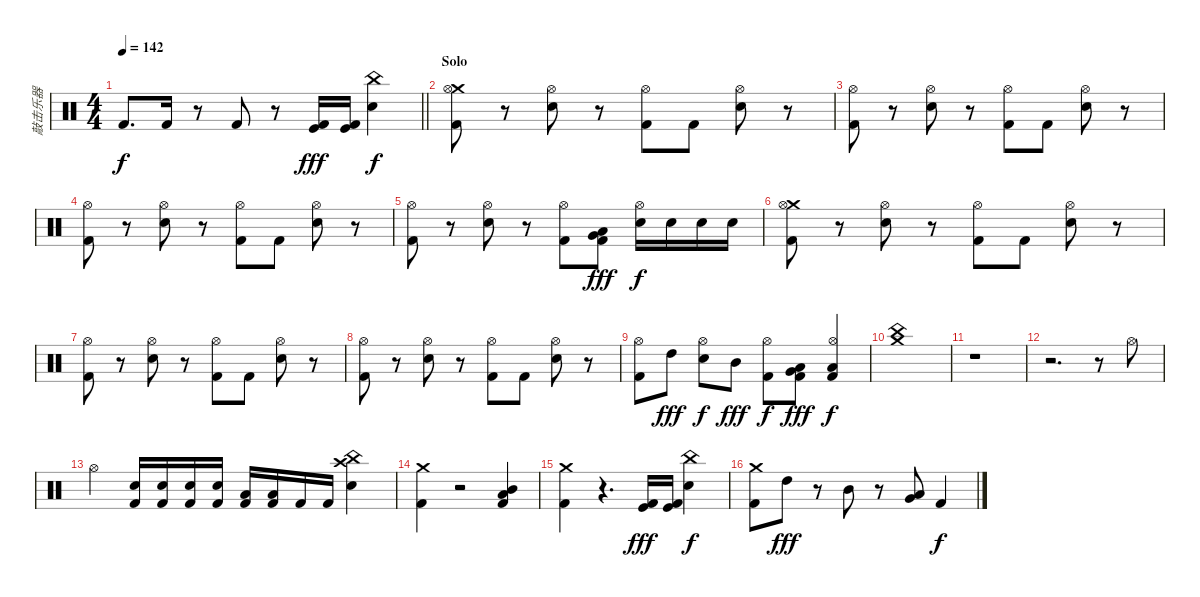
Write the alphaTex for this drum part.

\track ("敲击乐器" "敲击乐器") {instrument percussion}
\staff {score}
\articulation defaults
\ts (4 4)
\tempo 142
\clef neutral
\barLineRight lightlight
\ks c "Kick (hit) 2".8{d dy f} "Kick (hit) 2".16
r.8 "Kick (hit) 2".8 r.8 ("Kick (hit)" "Kick (hit) 2").16{dy fff} ("Kick (hit)" "Kick (hit) 2").16 ("Snare (hit) 2" "China (hit)").4{dy f} |
\section ("" "Solo")
("Crash medium (hit)" "Hi-Hat (open)" "Kick (hit) 2").8 r.8 ("Snare (hit) 2" "Hi-Hat (open)").8 r.8 ("Hi-Hat (open)" "Kick (hit) 2").8 "Kick (hit) 2".8 ("Snare (hit) 2" "Hi-Hat (open)").8 r.8 |
("Hi-Hat (open)" "Kick (hit) 2").8 r.8 ("Snare (hit) 2" "Hi-Hat (open)").8 r.8 ("Hi-Hat (open)" "Kick (hit) 2").8 "Kick (hit) 2".8 ("Snare (hit) 2" "Hi-Hat (open)").8 r.8 |
("Hi-Hat (open)" "Kick (hit) 2").8 r.8 ("Snare (hit) 2" "Hi-Hat (open)").8 r.8 ("Hi-Hat (open)" "Kick (hit) 2").8 "Kick (hit) 2".8 ("Snare (hit) 2" "Hi-Hat (open)").8 r.8 |
("Hi-Hat (open)" "Kick (hit) 2").8 r.8 ("Snare (hit) 2" "Hi-Hat (open)").8 r.8 ("Hi-Hat (open)" "Kick (hit) 2").8 ("Very Low Tom (hit)" "Low Floor Tom (hit)" "Kick (hit) 2").8{dy fff} ("Snare (hit) 2" "Hi-Hat (open)").16{dy f} "Snare (hit) 2".16 "Snare (hit) 2".16 "Snare (hit) 2".16 |
("Crash medium (hit)" "Hi-Hat (open)" "Kick (hit) 2").8 r.8 ("Snare (hit) 2" "Hi-Hat (open)").8 r.8 ("Hi-Hat (open)" "Kick (hit) 2").8 "Kick (hit) 2".8 ("Snare (hit) 2" "Hi-Hat (open)").8 r.8 |
("Hi-Hat (open)" "Kick (hit) 2").8 r.8 ("Snare (hit) 2" "Hi-Hat (open)").8 r.8 ("Hi-Hat (open)" "Kick (hit) 2").8 "Kick (hit) 2".8 ("Snare (hit) 2" "Hi-Hat (open)").8 r.8 |
("Hi-Hat (open)" "Kick (hit) 2").8 r.8 ("Snare (hit) 2" "Hi-Hat (open)").8 r.8 ("Hi-Hat (open)" "Kick (hit) 2").8 "Kick (hit) 2".8 ("Snare (hit) 2" "Hi-Hat (open)").8 r.8 |
("Hi-Hat (open)" "Kick (hit) 2").8 "High Tom (hit)".8{dy fff} ("Snare (hit) 2" "Hi-Hat (open)").8{dy f} "Mid Tom (hit)".8{dy fff} ("Hi-Hat (open)" "Kick (hit) 2").8{dy f} ("Very Low Tom (hit)" "Low Floor Tom (hit)" "Kick (hit) 2").8{dy fff} ("Low Floor Tom (hit)" "Hi-Hat (open)" "Kick (hit) 2").4{dy f} |
("Crash medium (hit)" "China (hit)").1 |
r.1 |
r.2{d} r.8 "Hi-Hat (open)".8 |
"Hi-Hat (open)".4 ("Snare (hit) 2" "Kick (hit) 2").16 ("Snare (hit) 2" "Kick (hit) 2").16 ("Snare (hit) 2" "Kick (hit) 2").16 ("Snare (hit) 2" "Kick (hit) 2").16 ("Low Tom (hit)" "Kick (hit) 2").16 ("Low Floor Tom (hit)" "Kick (hit) 2").16 "Kick (hit) 2".16 "Kick (hit) 2".16 ("Snare (hit) 2" "Crash high (hit)" "China (hit)").4 |
("Crash medium (hit)" "Kick (hit) 2").4 r.2 ("Mid Tom (hit)" "Low Tom (hit)" "Kick (hit) 2").4 |
("Crash medium (hit)" "Kick (hit) 2").4 r.4{d} ("Kick (hit)" "Kick (hit) 2").16{dy fff} ("Kick (hit)" "Kick (hit) 2").16 ("Snare (hit) 2" "China (hit)").4{dy f} |
("Crash medium (hit)" "Kick (hit) 2").8 "High Tom (hit)".8{dy fff} r.8 "Mid Tom (hit)".8 r.8 ("Very Low Tom (hit)" "Low Floor Tom (hit)").8 "Kick (hit) 2".4{dy f}
